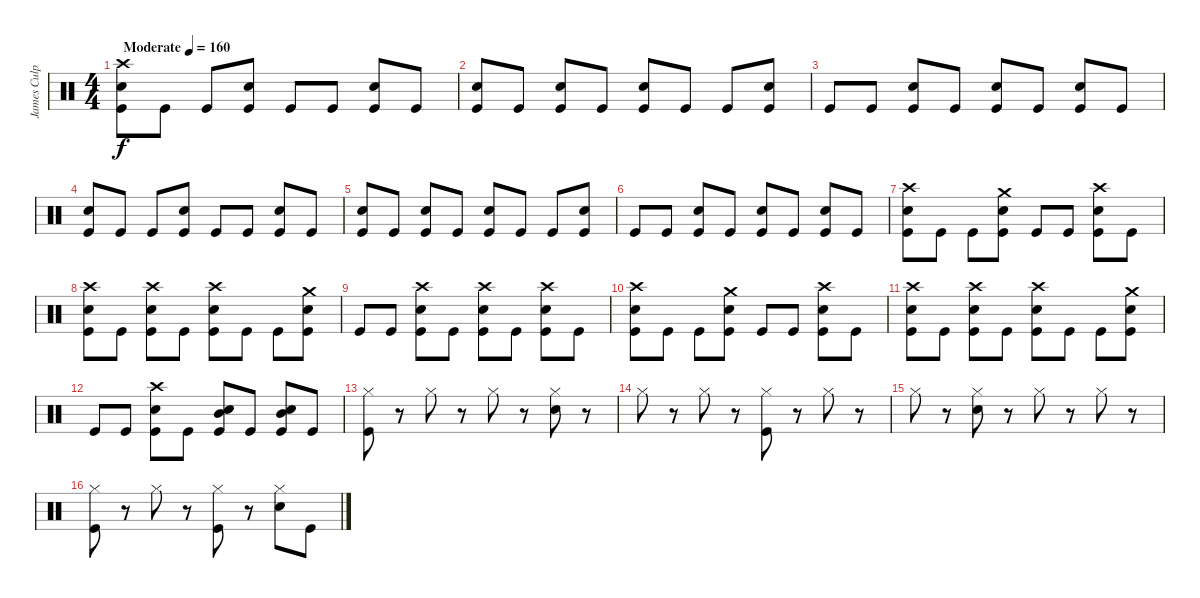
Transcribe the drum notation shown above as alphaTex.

\track ("James Culpepper - drums" "James Culp") {instrument percussion}
\staff {score}
\articulation defaults
\ts (4 4)
\tempo (160 "Moderate")
\clef neutral
\ks c
("Crash high (hit)" "Snare (hit) 2" "Kick (hit)").8{dy f} "Kick (hit)".8 "Kick (hit)".8 ("Snare (hit) 2" "Kick (hit)").8 "Kick (hit)".8 "Kick (hit)".8 ("Snare (hit) 2" "Kick (hit)").8 "Kick (hit)".8 |
("Snare (hit) 2" "Kick (hit)").8 "Kick (hit)".8 ("Snare (hit) 2" "Kick (hit)").8 "Kick (hit)".8 ("Snare (hit) 2" "Kick (hit)").8 "Kick (hit)".8 "Kick (hit)".8 ("Snare (hit) 2" "Kick (hit)").8 |
"Kick (hit)".8 "Kick (hit)".8 ("Snare (hit) 2" "Kick (hit)").8 "Kick (hit)".8 ("Snare (hit) 2" "Kick (hit)").8 "Kick (hit)".8 ("Snare (hit) 2" "Kick (hit)").8 "Kick (hit)".8 |
("Snare (hit) 2" "Kick (hit)").8 "Kick (hit)".8 "Kick (hit)".8 ("Snare (hit) 2" "Kick (hit)").8 "Kick (hit)".8 "Kick (hit)".8 ("Snare (hit) 2" "Kick (hit)").8 "Kick (hit)".8 |
("Snare (hit) 2" "Kick (hit)").8 "Kick (hit)".8 ("Snare (hit) 2" "Kick (hit)").8 "Kick (hit)".8 ("Snare (hit) 2" "Kick (hit)").8 "Kick (hit)".8 "Kick (hit)".8 ("Snare (hit) 2" "Kick (hit)").8 |
"Kick (hit)".8 "Kick (hit)".8 ("Snare (hit) 2" "Kick (hit)").8 "Kick (hit)".8 ("Snare (hit) 2" "Kick (hit)").8 "Kick (hit)".8 ("Snare (hit) 2" "Kick (hit)").8 "Kick (hit)".8 |
("Crash high (hit)" "Snare (hit) 2" "Kick (hit)").8 "Kick (hit)".8 "Kick (hit)".8 ("Crash medium (hit)" "Snare (hit) 2" "Kick (hit)").8 "Kick (hit)".8 "Kick (hit)".8 ("Crash high (hit)" "Snare (hit) 2" "Kick (hit)").8 "Kick (hit)".8 |
("Crash high (hit)" "Snare (hit) 2" "Kick (hit)").8 "Kick (hit)".8 ("Crash high (hit)" "Snare (hit) 2" "Kick (hit)").8 "Kick (hit)".8 ("Crash high (hit)" "Snare (hit) 2" "Kick (hit)").8 "Kick (hit)".8 "Kick (hit)".8 ("Crash medium (hit)" "Snare (hit) 2" "Kick (hit)").8 |
"Kick (hit)".8 "Kick (hit)".8 ("Crash high (hit)" "Snare (hit) 2" "Kick (hit)").8 "Kick (hit)".8 ("Crash high (hit)" "Snare (hit) 2" "Kick (hit)").8 "Kick (hit)".8 ("Crash high (hit)" "Snare (hit) 2" "Kick (hit)").8 "Kick (hit)".8 |
("Crash high (hit)" "Snare (hit) 2" "Kick (hit)").8 "Kick (hit)".8 "Kick (hit)".8 ("Crash medium (hit)" "Snare (hit) 2" "Kick (hit)").8 "Kick (hit)".8 "Kick (hit)".8 ("Crash high (hit)" "Snare (hit) 2" "Kick (hit)").8 "Kick (hit)".8 |
("Crash high (hit)" "Snare (hit) 2" "Kick (hit)").8 "Kick (hit)".8 ("Crash high (hit)" "Snare (hit) 2" "Kick (hit)").8 "Kick (hit)".8 ("Crash high (hit)" "Snare (hit) 2" "Kick (hit)").8 "Kick (hit)".8 "Kick (hit)".8 ("Crash medium (hit)" "Snare (hit) 2" "Kick (hit)").8 |
"Kick (hit)".8 "Kick (hit)".8 ("Crash high (hit)" "Snare (hit) 2" "Kick (hit)").8 "Kick (hit)".8 ("Mid Tom (hit)" "Snare (hit) 2" "Kick (hit)").8 "Kick (hit)".8 ("Mid Tom (hit)" "Snare (hit) 2" "Kick (hit)").8 "Kick (hit)".8 |
("Hi-Hat (closed)" "Kick (hit)").8 r.8 "Hi-Hat (closed)".8 r.8 "Hi-Hat (closed)".8 r.8 ("Hi-Hat (closed)" "Snare (hit) 2").8 r.8 |
"Hi-Hat (closed)".8 r.8 "Hi-Hat (closed)".8 r.8 ("Hi-Hat (closed)" "Kick (hit)").8 r.8 "Hi-Hat (closed)".8 r.8 |
"Hi-Hat (closed)".8 r.8 ("Hi-Hat (closed)" "Snare (hit) 2").8 r.8 "Hi-Hat (closed)".8 r.8 "Hi-Hat (closed)".8 r.8 |
("Hi-Hat (closed)" "Kick (hit)").8 r.8 "Hi-Hat (closed)".8 r.8 ("Hi-Hat (closed)" "Kick (hit)").8 r.8 ("Hi-Hat (closed)" "Snare (hit) 2").8 "Kick (hit)".8
